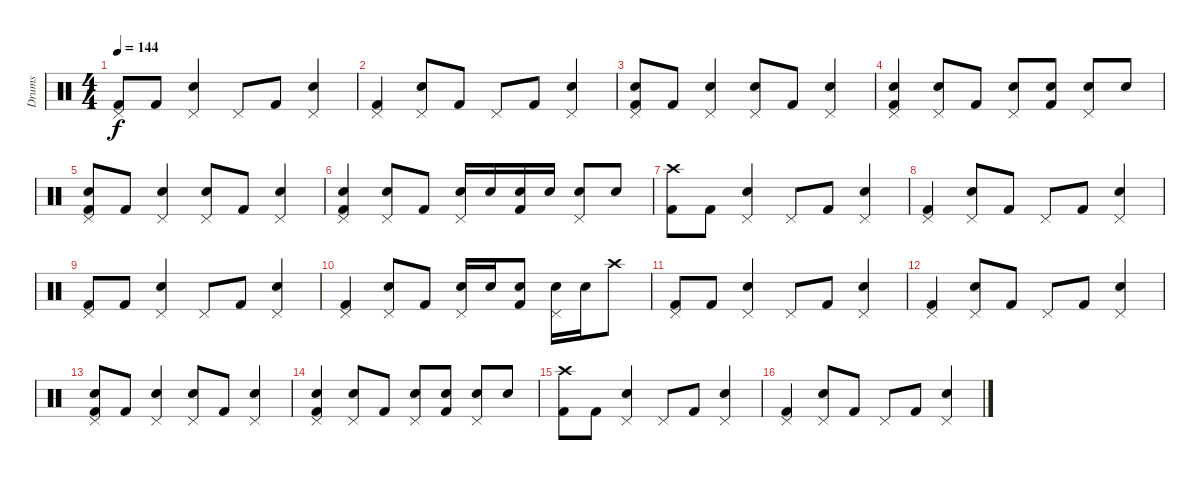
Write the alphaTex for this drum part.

\track ("Drums" "Drums") {instrument percussion}
\staff {score}
\articulation defaults
\ts (4 4)
\tempo 144
\clef neutral
\ks c
("Pedal Hi-Hat (hit)" "Kick (hit) 2").8{dy f} "Kick (hit) 2".8 ("Pedal Hi-Hat (hit)" "Electric Snare (hit)").4 "Pedal Hi-Hat (hit)".8 "Kick (hit) 2".8 ("Pedal Hi-Hat (hit)" "Electric Snare (hit)").4 |
("Kick (hit) 2" "Pedal Hi-Hat (hit)").4 ("Electric Snare (hit)" "Pedal Hi-Hat (hit)").8 "Kick (hit) 2".8 "Pedal Hi-Hat (hit)".8 "Kick (hit) 2".8 ("Electric Snare (hit)" "Pedal Hi-Hat (hit)").4 |
("Electric Snare (hit)" "Pedal Hi-Hat (hit)" "Kick (hit) 2").8 "Kick (hit) 2".8 ("Pedal Hi-Hat (hit)" "Electric Snare (hit)").4 ("Electric Snare (hit)" "Pedal Hi-Hat (hit)").8 "Kick (hit) 2".8 ("Pedal Hi-Hat (hit)" "Electric Snare (hit)").4 |
("Electric Snare (hit)" "Kick (hit) 2" "Pedal Hi-Hat (hit)").4 ("Electric Snare (hit)" "Pedal Hi-Hat (hit)").8 "Kick (hit) 2".8 ("Electric Snare (hit)" "Pedal Hi-Hat (hit)").8 ("Electric Snare (hit)" "Kick (hit) 2").8 ("Electric Snare (hit)" "Pedal Hi-Hat (hit)").8 "Electric Snare (hit)".8 |
("Electric Snare (hit)" "Pedal Hi-Hat (hit)" "Kick (hit) 2").8 "Kick (hit) 2".8 ("Pedal Hi-Hat (hit)" "Electric Snare (hit)").4 ("Electric Snare (hit)" "Pedal Hi-Hat (hit)").8 "Kick (hit) 2".8 ("Pedal Hi-Hat (hit)" "Electric Snare (hit)").4 |
("Electric Snare (hit)" "Kick (hit) 2" "Pedal Hi-Hat (hit)").4 ("Electric Snare (hit)" "Pedal Hi-Hat (hit)").8 "Kick (hit) 2".8 ("Electric Snare (hit)" "Pedal Hi-Hat (hit)").16 "Electric Snare (hit)".16 ("Electric Snare (hit)" "Kick (hit) 2").16 "Electric Snare (hit)".16 ("Electric Snare (hit)" "Pedal Hi-Hat (hit)").8 "Electric Snare (hit)".8 |
("Crash high (hit)" "Kick (hit) 2").8 "Kick (hit) 2".8 ("Pedal Hi-Hat (hit)" "Electric Snare (hit)").4 "Pedal Hi-Hat (hit)".8 "Kick (hit) 2".8 ("Pedal Hi-Hat (hit)" "Electric Snare (hit)").4 |
("Kick (hit) 2" "Pedal Hi-Hat (hit)").4 ("Electric Snare (hit)" "Pedal Hi-Hat (hit)").8 "Kick (hit) 2".8 "Pedal Hi-Hat (hit)".8 "Kick (hit) 2".8 ("Electric Snare (hit)" "Pedal Hi-Hat (hit)").4 |
("Pedal Hi-Hat (hit)" "Kick (hit) 2").8 "Kick (hit) 2".8 ("Pedal Hi-Hat (hit)" "Electric Snare (hit)").4 "Pedal Hi-Hat (hit)".8 "Kick (hit) 2".8 ("Pedal Hi-Hat (hit)" "Electric Snare (hit)").4 |
("Kick (hit) 2" "Pedal Hi-Hat (hit)").4 ("Electric Snare (hit)" "Pedal Hi-Hat (hit)").8 "Kick (hit) 2".8 ("Electric Snare (hit)" "Pedal Hi-Hat (hit)").16 "Electric Snare (hit)".16 ("Electric Snare (hit)" "Kick (hit) 2").8 ("Electric Snare (hit)" "Pedal Hi-Hat (hit)").16 "Electric Snare (hit)".16 "Crash high (hit)".8 |
("Pedal Hi-Hat (hit)" "Kick (hit) 2").8 "Kick (hit) 2".8 ("Pedal Hi-Hat (hit)" "Electric Snare (hit)").4 "Pedal Hi-Hat (hit)".8 "Kick (hit) 2".8 ("Pedal Hi-Hat (hit)" "Electric Snare (hit)").4 |
("Kick (hit) 2" "Pedal Hi-Hat (hit)").4 ("Electric Snare (hit)" "Pedal Hi-Hat (hit)").8 "Kick (hit) 2".8 "Pedal Hi-Hat (hit)".8 "Kick (hit) 2".8 ("Electric Snare (hit)" "Pedal Hi-Hat (hit)").4 |
("Electric Snare (hit)" "Pedal Hi-Hat (hit)" "Kick (hit) 2").8 "Kick (hit) 2".8 ("Pedal Hi-Hat (hit)" "Electric Snare (hit)").4 ("Electric Snare (hit)" "Pedal Hi-Hat (hit)").8 "Kick (hit) 2".8 ("Pedal Hi-Hat (hit)" "Electric Snare (hit)").4 |
("Electric Snare (hit)" "Kick (hit) 2" "Pedal Hi-Hat (hit)").4 ("Electric Snare (hit)" "Pedal Hi-Hat (hit)").8 "Kick (hit) 2".8 ("Electric Snare (hit)" "Pedal Hi-Hat (hit)").8 ("Electric Snare (hit)" "Kick (hit) 2").8 ("Electric Snare (hit)" "Pedal Hi-Hat (hit)").8 "Electric Snare (hit)".8 |
("Crash high (hit)" "Kick (hit) 2").8 "Kick (hit) 2".8 ("Pedal Hi-Hat (hit)" "Electric Snare (hit)").4 "Pedal Hi-Hat (hit)".8 "Kick (hit) 2".8 ("Pedal Hi-Hat (hit)" "Electric Snare (hit)").4 |
("Kick (hit) 2" "Pedal Hi-Hat (hit)").4 ("Electric Snare (hit)" "Pedal Hi-Hat (hit)").8 "Kick (hit) 2".8 "Pedal Hi-Hat (hit)".8 "Kick (hit) 2".8 ("Electric Snare (hit)" "Pedal Hi-Hat (hit)").4
